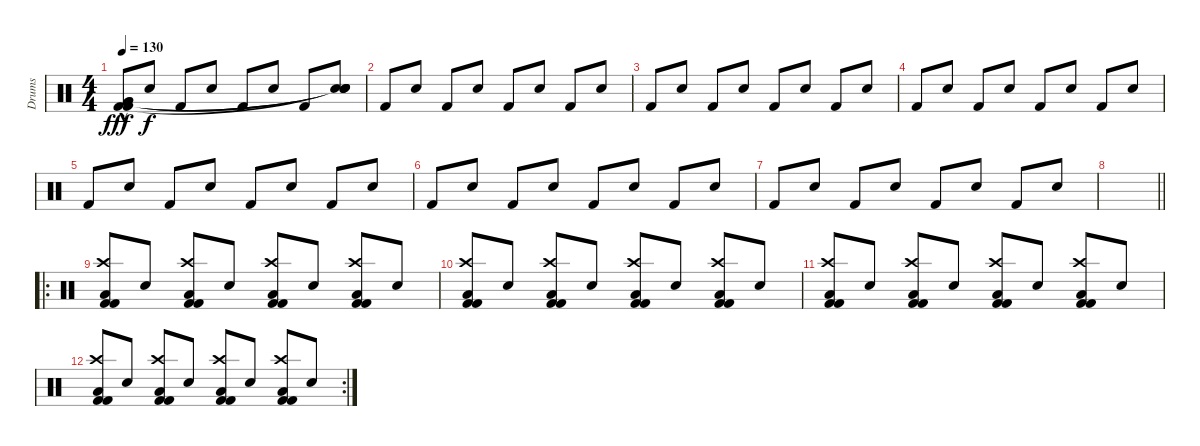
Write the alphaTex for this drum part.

\track ("Drums" "Drums") {instrument percussion}
\staff {score}
\articulation defaults
\ts (4 4)
\section ("" "")
\tempo 130
\clef neutral
\ks c
("Kick (hit) 2"{hac} "Very Low Tom (hit)"{hac} "Very Low Tom (hit)"{hac} "Kick (hit) 2"{hac}).8{dy fff volume 13} "Hand Clap (hit)".8{dy f} "Kick (hit) 2".8 "Hand Clap (hit)".8 "Kick (hit) 2".8 "Hand Clap (hit)".8 "Kick (hit) 2".8 ("Hand Clap (hit)" "Snare (hit)"{t} "Snare (hit)"{t} "Snare (hit)"{t}).8 |
"Kick (hit) 2".8 "Hand Clap (hit)".8 "Kick (hit) 2".8 "Hand Clap (hit)".8 "Kick (hit) 2".8 "Hand Clap (hit)".8 "Kick (hit) 2".8 "Hand Clap (hit)".8 |
"Kick (hit) 2".8 "Hand Clap (hit)".8 "Kick (hit) 2".8 "Hand Clap (hit)".8 "Kick (hit) 2".8 "Hand Clap (hit)".8 "Kick (hit) 2".8 "Hand Clap (hit)".8 |
"Kick (hit) 2".8 "Hand Clap (hit)".8 "Kick (hit) 2".8 "Hand Clap (hit)".8 "Kick (hit) 2".8 "Hand Clap (hit)".8 "Kick (hit) 2".8 "Hand Clap (hit)".8 |
"Kick (hit) 2".8 "Hand Clap (hit)".8 "Kick (hit) 2".8 "Hand Clap (hit)".8 "Kick (hit) 2".8 "Hand Clap (hit)".8 "Kick (hit) 2".8 "Hand Clap (hit)".8 |
"Kick (hit) 2".8 "Hand Clap (hit)".8 "Kick (hit) 2".8 "Hand Clap (hit)".8 "Kick (hit) 2".8 "Hand Clap (hit)".8 "Kick (hit) 2".8 "Hand Clap (hit)".8 |
"Kick (hit) 2".8 "Hand Clap (hit)".8 "Kick (hit) 2".8 "Hand Clap (hit)".8 "Kick (hit) 2".8 "Hand Clap (hit)".8 "Kick (hit) 2".8 "Hand Clap (hit)".8 |
\barLineRight lightlight
|
\ro
\section ("" "")
("Crash high (hit)" "Low Floor Tom (hit)" "Kick (hit) 2" "Kick (hit) 2").8 "Hand Clap (hit)".8 ("Crash high (hit)" "Low Floor Tom (hit)" "Kick (hit) 2" "Kick (hit) 2").8 "Hand Clap (hit)".8 ("Crash high (hit)" "Low Floor Tom (hit)" "Kick (hit) 2" "Kick (hit) 2").8 "Hand Clap (hit)".8 ("Crash high (hit)" "Low Floor Tom (hit)" "Kick (hit) 2" "Kick (hit) 2").8 "Hand Clap (hit)".8 |
("Crash high (hit)" "Low Floor Tom (hit)" "Kick (hit) 2" "Kick (hit) 2").8 "Hand Clap (hit)".8 ("Crash high (hit)" "Low Floor Tom (hit)" "Kick (hit) 2" "Kick (hit) 2").8 "Hand Clap (hit)".8 ("Crash high (hit)" "Low Floor Tom (hit)" "Kick (hit) 2" "Kick (hit) 2").8 "Hand Clap (hit)".8 ("Crash high (hit)" "Low Floor Tom (hit)" "Kick (hit) 2" "Kick (hit) 2").8 "Hand Clap (hit)".8 |
("Crash high (hit)" "Low Floor Tom (hit)" "Kick (hit) 2" "Kick (hit) 2").8 "Hand Clap (hit)".8 ("Crash high (hit)" "Low Floor Tom (hit)" "Kick (hit) 2" "Kick (hit) 2").8 "Hand Clap (hit)".8 ("Crash high (hit)" "Low Floor Tom (hit)" "Kick (hit) 2" "Kick (hit) 2").8 "Hand Clap (hit)".8 ("Crash high (hit)" "Low Floor Tom (hit)" "Kick (hit) 2" "Kick (hit) 2").8 "Hand Clap (hit)".8 |
\rc 2
("Crash high (hit)" "Low Floor Tom (hit)" "Kick (hit) 2" "Kick (hit) 2").8 "Hand Clap (hit)".8 ("Crash high (hit)" "Low Floor Tom (hit)" "Kick (hit) 2" "Kick (hit) 2").8 "Hand Clap (hit)".8 ("Crash high (hit)" "Low Floor Tom (hit)" "Kick (hit) 2" "Kick (hit) 2").8 "Hand Clap (hit)".8 ("Crash high (hit)" "Low Floor Tom (hit)" "Kick (hit) 2" "Kick (hit) 2").8 "Hand Clap (hit)".8
